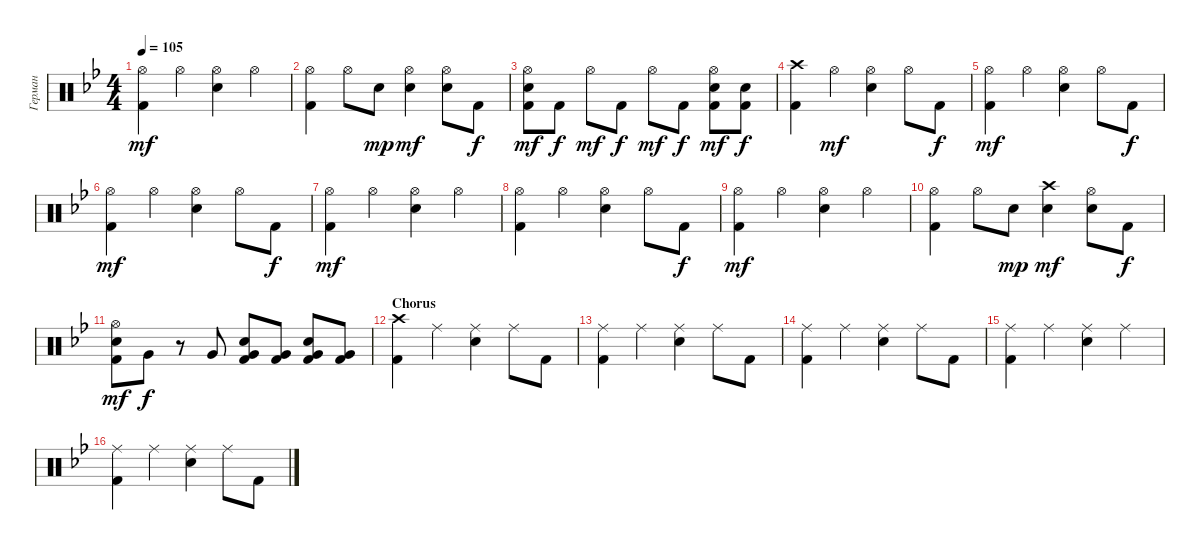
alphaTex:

\track ("Герман" "Герман") {instrument percussion}
\staff {score}
\articulation defaults
\ts (4 4)
\tempo 105
\clef neutral
\ks gminor
("Hi-Hat (open)" "Kick (hit) 2").4{dy mf} "Hi-Hat (open)".4 ("Hi-Hat (open)" "Electric Snare (hit)").4 "Hi-Hat (open)".4 |
("Hi-Hat (open)" "Kick (hit) 2").4 "Hi-Hat (open)".8 "Electric Snare (hit)".8{dy mp} ("Hi-Hat (open)" "Electric Snare (hit)").4{dy mf} ("Hi-Hat (open)" "Electric Snare (hit)").8 "Kick (hit) 2".8{dy f} |
("Hi-Hat (open)" "Electric Snare (hit)" "Kick (hit) 2").8{dy mf} "Kick (hit) 2".8{dy f} "Hi-Hat (open)".8{dy mf} "Kick (hit) 2".8{dy f} "Hi-Hat (open)".8{dy mf} "Kick (hit) 2".8{dy f} ("Hi-Hat (open)" "Electric Snare (hit)" "Kick (hit) 2").8{dy mf} ("Electric Snare (hit)" "Kick (hit) 2").8{dy f} |
("Crash high (hit)" "Kick (hit) 2").4 "Hi-Hat (open)".4{dy mf} ("Hi-Hat (open)" "Electric Snare (hit)").4 "Hi-Hat (open)".8 "Kick (hit) 2".8{dy f} |
("Hi-Hat (open)" "Kick (hit) 2").4{dy mf} "Hi-Hat (open)".4 ("Hi-Hat (open)" "Electric Snare (hit)").4 "Hi-Hat (open)".8 "Kick (hit) 2".8{dy f} |
("Hi-Hat (open)" "Kick (hit) 2").4{dy mf} "Hi-Hat (open)".4 ("Hi-Hat (open)" "Electric Snare (hit)").4 "Hi-Hat (open)".8 "Kick (hit) 2".8{dy f} |
("Hi-Hat (open)" "Kick (hit) 2").4{dy mf} "Hi-Hat (open)".4 ("Hi-Hat (open)" "Electric Snare (hit)").4 "Hi-Hat (open)".4 |
("Hi-Hat (open)" "Kick (hit) 2").4 "Hi-Hat (open)".4 ("Hi-Hat (open)" "Electric Snare (hit)").4 "Hi-Hat (open)".8 "Kick (hit) 2".8{dy f} |
("Hi-Hat (open)" "Kick (hit) 2").4{dy mf} "Hi-Hat (open)".4 ("Hi-Hat (open)" "Electric Snare (hit)").4 "Hi-Hat (open)".4 |
("Hi-Hat (open)" "Kick (hit) 2").4 "Hi-Hat (open)".8 "Electric Snare (hit)".8{dy mp} ("Crash high (hit)" "Electric Snare (hit)").4{dy mf} ("Hi-Hat (open)" "Electric Snare (hit)").8 "Kick (hit) 2".8{dy f} |
("Hi-Hat (open)" "Electric Snare (hit)" "Kick (hit) 2").8{dy mf} "Very Low Tom (hit)".8{dy f} r.8 "Very Low Tom (hit)".8 ("Very Low Tom (hit)" "Electric Snare (hit)" "Kick (hit) 2").8 ("Very Low Tom (hit)" "Kick (hit) 2").8 ("Very Low Tom (hit)" "Electric Snare (hit)" "Kick (hit) 2").8 ("Very Low Tom (hit)" "Kick (hit) 2").8 |
\section ("" "Chorus")
("Crash high (hit)" "Kick (hit) 2").4 "Ride (middle)".4 ("Ride (middle)" "Electric Snare (hit)").4 "Ride (middle)".8 "Kick (hit) 2".8 |
("Ride (middle)" "Kick (hit) 2").4 "Ride (middle)".4 ("Ride (middle)" "Electric Snare (hit)").4 "Ride (middle)".8 "Kick (hit) 2".8 |
("Ride (middle)" "Kick (hit) 2").4 "Ride (middle)".4 ("Ride (middle)" "Electric Snare (hit)").4 "Ride (middle)".8 "Kick (hit) 2".8 |
("Ride (middle)" "Kick (hit) 2").4 "Ride (middle)".4 ("Ride (middle)" "Electric Snare (hit)").4 "Ride (middle)".4 |
("Ride (middle)" "Kick (hit) 2").4 "Ride (middle)".4 ("Ride (middle)" "Electric Snare (hit)").4 "Ride (middle)".8 "Kick (hit) 2".8
